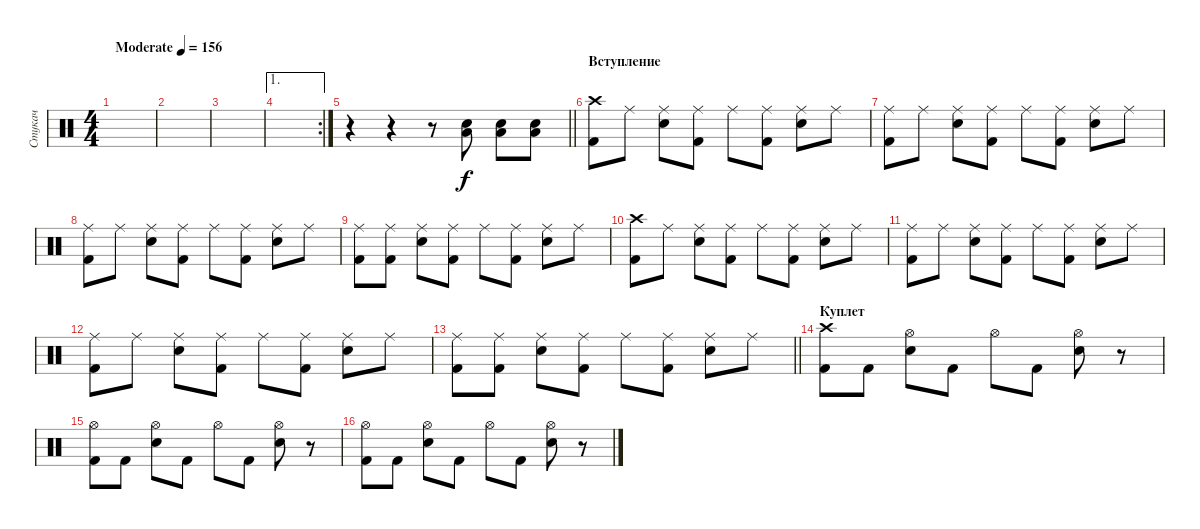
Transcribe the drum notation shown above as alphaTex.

\track ("Стукач" "Стукач") {instrument percussion}
\staff {score}
\articulation defaults
\ts (4 4)
\tempo (156 "Moderate")
\clef neutral
\ks c
|
|
|
\ae 1
\rc 2
|
\barLineRight lightlight
r.4 r.4 r.8 ("Snare (hit) 2" "Low Tom (hit)").8 ("Snare (hit) 2" "Low Tom (hit)").8 ("Snare (hit) 2" "Low Tom (hit)").8 |
\section ("" "Вступление")
("Crash high (hit)" "Kick (hit) 2").8 "Ride (middle)".8 ("Ride (middle)" "Snare (hit) 2").8 ("Ride (middle)" "Kick (hit) 2").8 "Ride (middle)".8 ("Ride (middle)" "Kick (hit) 2").8 ("Ride (middle)" "Snare (hit) 2").8 "Ride (middle)".8 |
("Ride (middle)" "Kick (hit) 2").8 "Ride (middle)".8 ("Ride (middle)" "Snare (hit) 2").8 ("Ride (middle)" "Kick (hit) 2").8 "Ride (middle)".8 ("Ride (middle)" "Kick (hit) 2").8 ("Ride (middle)" "Snare (hit) 2").8 "Ride (middle)".8 |
("Ride (middle)" "Kick (hit) 2").8 "Ride (middle)".8 ("Ride (middle)" "Snare (hit) 2").8 ("Ride (middle)" "Kick (hit) 2").8 "Ride (middle)".8 ("Ride (middle)" "Kick (hit) 2").8 ("Ride (middle)" "Snare (hit) 2").8 "Ride (middle)".8 |
("Ride (middle)" "Kick (hit) 2").8 ("Ride (middle)" "Kick (hit) 2").8 ("Ride (middle)" "Snare (hit) 2").8 ("Ride (middle)" "Kick (hit) 2").8 "Ride (middle)".8 ("Ride (middle)" "Kick (hit) 2").8 ("Ride (middle)" "Snare (hit) 2").8 "Ride (middle)".8 |
("Crash high (hit)" "Kick (hit) 2").8 "Ride (middle)".8 ("Ride (middle)" "Snare (hit) 2").8 ("Ride (middle)" "Kick (hit) 2").8 "Ride (middle)".8 ("Ride (middle)" "Kick (hit) 2").8 ("Ride (middle)" "Snare (hit) 2").8 "Ride (middle)".8 |
("Ride (middle)" "Kick (hit) 2").8 "Ride (middle)".8 ("Ride (middle)" "Snare (hit) 2").8 ("Ride (middle)" "Kick (hit) 2").8 "Ride (middle)".8 ("Ride (middle)" "Kick (hit) 2").8 ("Ride (middle)" "Snare (hit) 2").8 "Ride (middle)".8 |
("Ride (middle)" "Kick (hit) 2").8 "Ride (middle)".8 ("Ride (middle)" "Snare (hit) 2").8 ("Ride (middle)" "Kick (hit) 2").8 "Ride (middle)".8 ("Ride (middle)" "Kick (hit) 2").8 ("Ride (middle)" "Snare (hit) 2").8 "Ride (middle)".8 |
\barLineRight lightlight
("Ride (middle)" "Kick (hit) 2").8 ("Ride (middle)" "Kick (hit) 2").8 ("Ride (middle)" "Snare (hit) 2").8 ("Ride (middle)" "Kick (hit) 2").8 "Ride (middle)".8 ("Ride (middle)" "Kick (hit) 2").8 ("Ride (middle)" "Snare (hit) 2").8 "Ride (middle)".8 |
\section ("" "Куплет")
("Crash high (hit)" "Kick (hit) 2").8 "Kick (hit) 2".8 ("Hi-Hat (open)" "Snare (hit) 2").8 "Kick (hit) 2".8 "Hi-Hat (open)".8 "Kick (hit) 2".8 ("Hi-Hat (open)" "Snare (hit) 2").8 r.8 |
("Hi-Hat (open)" "Kick (hit) 2").8 "Kick (hit) 2".8 ("Hi-Hat (open)" "Snare (hit) 2").8 "Kick (hit) 2".8 "Hi-Hat (open)".8 "Kick (hit) 2".8 ("Hi-Hat (open)" "Snare (hit) 2").8 r.8 |
("Hi-Hat (open)" "Kick (hit) 2").8 "Kick (hit) 2".8 ("Hi-Hat (open)" "Snare (hit) 2").8 "Kick (hit) 2".8 "Hi-Hat (open)".8 "Kick (hit) 2".8 ("Hi-Hat (open)" "Snare (hit) 2").8 r.8
